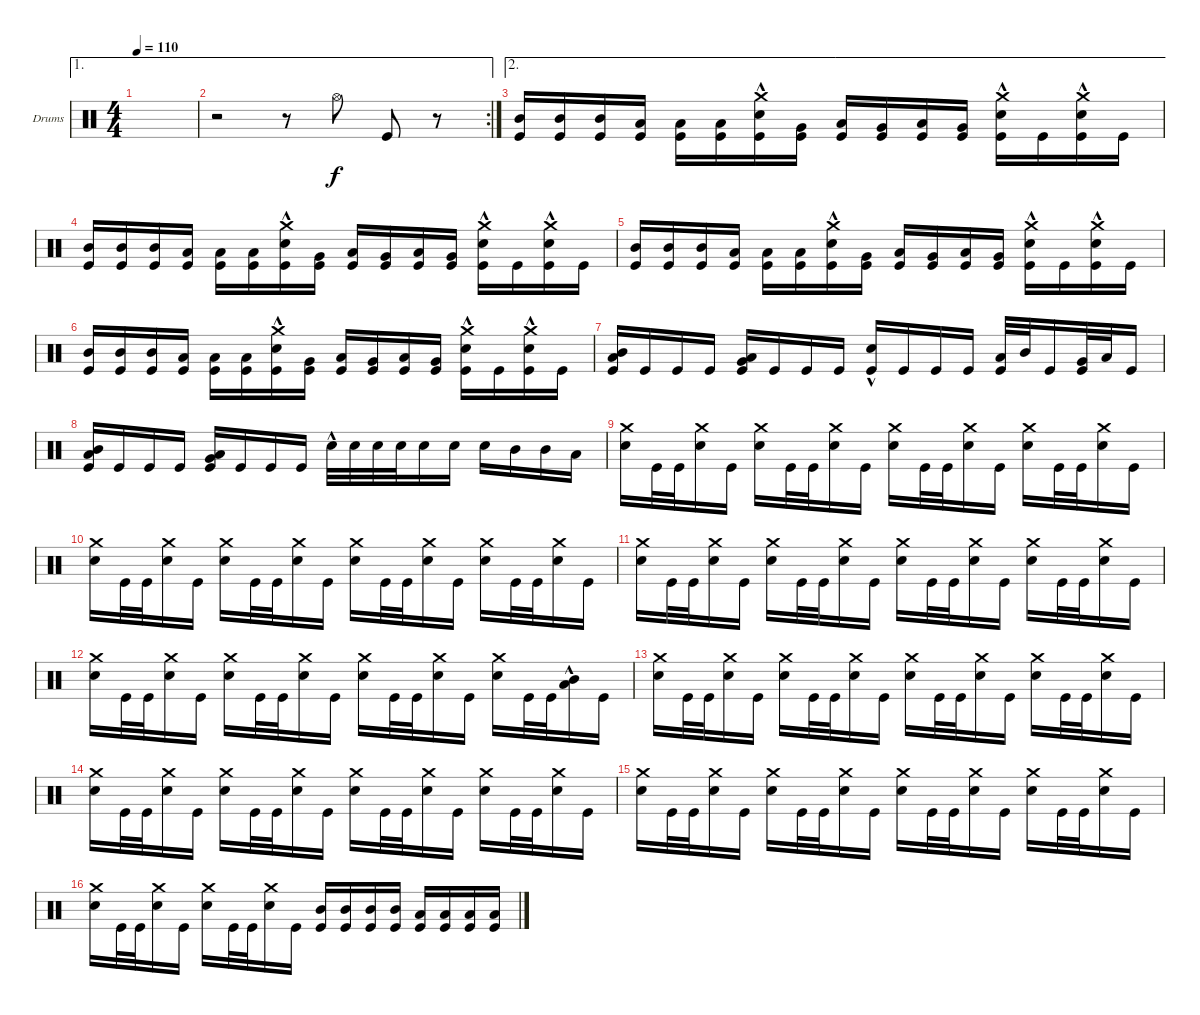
\defaultSystemsLayout 4
\bracketExtendMode groupsimilarinstruments
\firstSystemTrackNameOrientation horizontal
\otherSystemsTrackNameOrientation horizontal
\track ("Drumkit" "Drums") {instrument percussion}
\staff {score}
\articulation defaults
\ae 1
\ts (4 4)
\tempo 110
\clef neutral
\scale
0.322034
\ks c
|
\ae 1
\rc 2
\scale
0.355932 r.2 r.8 "Hi-Hat (open)".8 "Kick (hit)".8 r.8 |
\ae 2
\scale
0.333333 ("Mid Tom (hit)" "Kick (hit)").16 ("Kick (hit)" "Mid Tom (hit)").16 ("Kick (hit)" "Mid Tom (hit)").16 ("Kick (hit)" "Low Tom (hit)").16 ("Kick (hit)" "Low Tom (hit)").16 ("Kick (hit)" "Low Tom (hit)").16 ("Kick (hit)" "Snare (hit) 2"{hac} "Crash medium (hit)").16 ("Kick (hit)" "Very Low Tom (hit)").16 ("Kick (hit)" "Low Tom (hit)").16 ("Kick (hit)" "Very Low Tom (hit)").16 ("Kick (hit)" "Low Tom (hit)").16 ("Kick (hit)" "Very Low Tom (hit)").16 ("Kick (hit)" "Snare (hit) 2"{hac} "Crash medium (hit)").16 "Kick (hit)".16 ("Kick (hit)" "Snare (hit) 2"{hac} "Crash medium (hit)").16 "Kick (hit)".16 |
\scale
0.333333 ("Kick (hit)" "Mid Tom (hit)").16 ("Kick (hit)" "Mid Tom (hit)").16 ("Kick (hit)" "Mid Tom (hit)").16 ("Kick (hit)" "Low Tom (hit)").16 ("Kick (hit)" "Low Tom (hit)").16 ("Kick (hit)" "Low Tom (hit)").16 ("Kick (hit)" "Snare (hit) 2"{hac} "Crash medium (hit)").16 ("Kick (hit)" "Very Low Tom (hit)").16 ("Kick (hit)" "Low Tom (hit)").16 ("Kick (hit)" "Very Low Tom (hit)").16 ("Kick (hit)" "Low Tom (hit)").16 ("Kick (hit)" "Very Low Tom (hit)").16 ("Kick (hit)" "Snare (hit) 2"{hac} "Crash medium (hit)").16 "Kick (hit)".16 ("Kick (hit)" "Snare (hit) 2"{hac} "Crash medium (hit)").16 "Kick (hit)".16 |
\scale
0.333333 ("Kick (hit)" "Mid Tom (hit)").16 ("Kick (hit)" "Mid Tom (hit)").16 ("Kick (hit)" "Mid Tom (hit)").16 ("Kick (hit)" "Low Tom (hit)").16 ("Kick (hit)" "Low Tom (hit)").16 ("Kick (hit)" "Low Tom (hit)").16 ("Kick (hit)" "Snare (hit) 2"{hac} "Crash medium (hit)").16 ("Kick (hit)" "Very Low Tom (hit)").16 ("Kick (hit)" "Low Tom (hit)").16 ("Kick (hit)" "Very Low Tom (hit)").16 ("Kick (hit)" "Low Tom (hit)").16 ("Kick (hit)" "Very Low Tom (hit)").16 ("Kick (hit)" "Snare (hit) 2"{hac} "Crash medium (hit)").16 "Kick (hit)".16 ("Kick (hit)" "Snare (hit) 2"{hac} "Crash medium (hit)").16 "Kick (hit)".16 |
\scale
0.333333 ("Kick (hit)" "Mid Tom (hit)").16 ("Kick (hit)" "Mid Tom (hit)").16 ("Kick (hit)" "Mid Tom (hit)").16 ("Kick (hit)" "Low Tom (hit)").16 ("Kick (hit)" "Low Tom (hit)").16 ("Kick (hit)" "Low Tom (hit)").16 ("Kick (hit)" "Snare (hit) 2"{hac} "Crash medium (hit)").16 ("Kick (hit)" "Very Low Tom (hit)").16 ("Kick (hit)" "Low Tom (hit)").16 ("Kick (hit)" "Very Low Tom (hit)").16 ("Kick (hit)" "Low Tom (hit)").16 ("Kick (hit)" "Very Low Tom (hit)").16 ("Kick (hit)" "Snare (hit) 2"{hac} "Crash medium (hit)").16 "Kick (hit)".16 ("Kick (hit)" "Snare (hit) 2"{hac} "Crash medium (hit)").16 "Kick (hit)".16 |
\scale
0.333333 ("Kick (hit)" "Mid Tom (hit)" "Low Tom (hit)").16 "Kick (hit)".16 "Kick (hit)".16 "Kick (hit)".16 ("Kick (hit)" "Very Low Tom (hit)" "Low Tom (hit)").16 "Kick (hit)".16 "Kick (hit)".16 "Kick (hit)".16 ("Kick (hit)" "Snare (hit) 2"{hac}).16 "Kick (hit)".16 "Kick (hit)".16 "Kick (hit)".16 ("Kick (hit)" "Low Tom (hit)").32 "Mid Tom (hit)".32 "Kick (hit)".16 ("Kick (hit)" "Very Low Tom (hit)").32 "Low Tom (hit)".32 "Kick (hit)".16 |
\scale
0.333333 ("Kick (hit)" "Mid Tom (hit)" "Low Tom (hit)").16 "Kick (hit)".16 "Kick (hit)".16 "Kick (hit)".16 ("Kick (hit)" "Very Low Tom (hit)" "Low Tom (hit)").16 "Kick (hit)".16 "Kick (hit)".16 "Kick (hit)".16 "Snare (hit) 2"{hac}.32 "Snare (hit) 2".32 "Snare (hit) 2".32 "Snare (hit) 2".32 "Snare (hit) 2".16 "Snare (hit) 2".16 "Snare (hit) 2".16 "Mid Tom (hit)".16 "Mid Tom (hit)".16 "Low Tom (hit)".16 |
\scale
0.333333 ("Snare (hit) 2" "Crash medium (hit)").16 "Kick (hit)".32 "Kick (hit)".32 ("Snare (hit) 2" "Crash medium (hit)").16 "Kick (hit)".16 ("Snare (hit) 2" "Crash medium (hit)").16 "Kick (hit)".32 "Kick (hit)".32 ("Snare (hit) 2" "Crash medium (hit)").16 "Kick (hit)".16 ("Snare (hit) 2" "Crash medium (hit)").16 "Kick (hit)".32 "Kick (hit)".32 ("Snare (hit) 2" "Crash medium (hit)").16 "Kick (hit)".16 ("Snare (hit) 2" "Crash medium (hit)").16 "Kick (hit)".32 "Kick (hit)".32 ("Snare (hit) 2" "Crash medium (hit)").16 "Kick (hit)".16 |
\scale
0.333333 ("Snare (hit) 2" "Crash medium (hit)").16 "Kick (hit)".32 "Kick (hit)".32 ("Snare (hit) 2" "Crash medium (hit)").16 "Kick (hit)".16 ("Snare (hit) 2" "Crash medium (hit)").16 "Kick (hit)".32 "Kick (hit)".32 ("Snare (hit) 2" "Crash medium (hit)").16 "Kick (hit)".16 ("Snare (hit) 2" "Crash medium (hit)").16 "Kick (hit)".32 "Kick (hit)".32 ("Snare (hit) 2" "Crash medium (hit)").16 "Kick (hit)".16 ("Snare (hit) 2" "Crash medium (hit)").16 "Kick (hit)".32 "Kick (hit)".32 ("Snare (hit) 2" "Crash medium (hit)").16 "Kick (hit)".16 |
\scale
0.333333 ("Snare (hit) 2" "Crash medium (hit)").16 "Kick (hit)".32 "Kick (hit)".32 ("Snare (hit) 2" "Crash medium (hit)").16 "Kick (hit)".16 ("Snare (hit) 2" "Crash medium (hit)").16 "Kick (hit)".32 "Kick (hit)".32 ("Snare (hit) 2" "Crash medium (hit)").16 "Kick (hit)".16 ("Snare (hit) 2" "Crash medium (hit)").16 "Kick (hit)".32 "Kick (hit)".32 ("Snare (hit) 2" "Crash medium (hit)").16 "Kick (hit)".16 ("Snare (hit) 2" "Crash medium (hit)").16 "Kick (hit)".32 "Kick (hit)".32 ("Snare (hit) 2" "Crash medium (hit)").16 "Kick (hit)".16 |
\scale
0.333333 ("Snare (hit) 2" "Crash medium (hit)").16 "Kick (hit)".32 "Kick (hit)".32 ("Snare (hit) 2" "Crash medium (hit)").16 "Kick (hit)".16 ("Snare (hit) 2" "Crash medium (hit)").16 "Kick (hit)".32 "Kick (hit)".32 ("Snare (hit) 2" "Crash medium (hit)").16 "Kick (hit)".16 ("Snare (hit) 2" "Crash medium (hit)").16 "Kick (hit)".32 "Kick (hit)".32 ("Snare (hit) 2" "Crash medium (hit)").16 "Kick (hit)".16 ("Snare (hit) 2" "Crash medium (hit)").16 "Kick (hit)".32 "Kick (hit)".32 ("Low Tom (hit)"{hac} "Mid Tom (hit)"{hac}).16 "Kick (hit)".16 |
\scale
0.333333 ("Snare (hit) 2" "Crash medium (hit)").16 "Kick (hit)".32 "Kick (hit)".32 ("Snare (hit) 2" "Crash medium (hit)").16 "Kick (hit)".16 ("Snare (hit) 2" "Crash medium (hit)").16 "Kick (hit)".32 "Kick (hit)".32 ("Snare (hit) 2" "Crash medium (hit)").16 "Kick (hit)".16 ("Snare (hit) 2" "Crash medium (hit)").16 "Kick (hit)".32 "Kick (hit)".32 ("Snare (hit) 2" "Crash medium (hit)").16 "Kick (hit)".16 ("Snare (hit) 2" "Crash medium (hit)").16 "Kick (hit)".32 "Kick (hit)".32 ("Snare (hit) 2" "Crash medium (hit)").16 "Kick (hit)".16 |
\scale
0.333333 ("Snare (hit) 2" "Crash medium (hit)").16 "Kick (hit)".32 "Kick (hit)".32 ("Snare (hit) 2" "Crash medium (hit)").16 "Kick (hit)".16 ("Snare (hit) 2" "Crash medium (hit)").16 "Kick (hit)".32 "Kick (hit)".32 ("Snare (hit) 2" "Crash medium (hit)").16 "Kick (hit)".16 ("Snare (hit) 2" "Crash medium (hit)").16 "Kick (hit)".32 "Kick (hit)".32 ("Snare (hit) 2" "Crash medium (hit)").16 "Kick (hit)".16 ("Snare (hit) 2" "Crash medium (hit)").16 "Kick (hit)".32 "Kick (hit)".32 ("Snare (hit) 2" "Crash medium (hit)").16 "Kick (hit)".16 |
\scale
0.333333 ("Snare (hit) 2" "Crash medium (hit)").16 "Kick (hit)".32 "Kick (hit)".32 ("Snare (hit) 2" "Crash medium (hit)").16 "Kick (hit)".16 ("Snare (hit) 2" "Crash medium (hit)").16 "Kick (hit)".32 "Kick (hit)".32 ("Snare (hit) 2" "Crash medium (hit)").16 "Kick (hit)".16 ("Snare (hit) 2" "Crash medium (hit)").16 "Kick (hit)".32 "Kick (hit)".32 ("Snare (hit) 2" "Crash medium (hit)").16 "Kick (hit)".16 ("Snare (hit) 2" "Crash medium (hit)").16 "Kick (hit)".32 "Kick (hit)".32 ("Snare (hit) 2" "Crash medium (hit)").16 "Kick (hit)".16 |
\scale
0.333333 ("Snare (hit) 2" "Crash medium (hit)").16 "Kick (hit)".32 "Kick (hit)".32 ("Snare (hit) 2" "Crash medium (hit)").16 "Kick (hit)".16 ("Snare (hit) 2" "Crash medium (hit)").16 "Kick (hit)".32 "Kick (hit)".32 ("Snare (hit) 2" "Crash medium (hit)").16 "Kick (hit)".16 ("Kick (hit)" "Mid Tom (hit)").16 ("Kick (hit)" "Mid Tom (hit)").16 ("Kick (hit)" "Mid Tom (hit)").16 ("Kick (hit)" "Mid Tom (hit)").16 ("Kick (hit)" "Low Tom (hit)").16 ("Kick (hit)" "Low Tom (hit)").16 ("Kick (hit)" "Low Tom (hit)").16 ("Kick (hit)" "Low Tom (hit)").16
